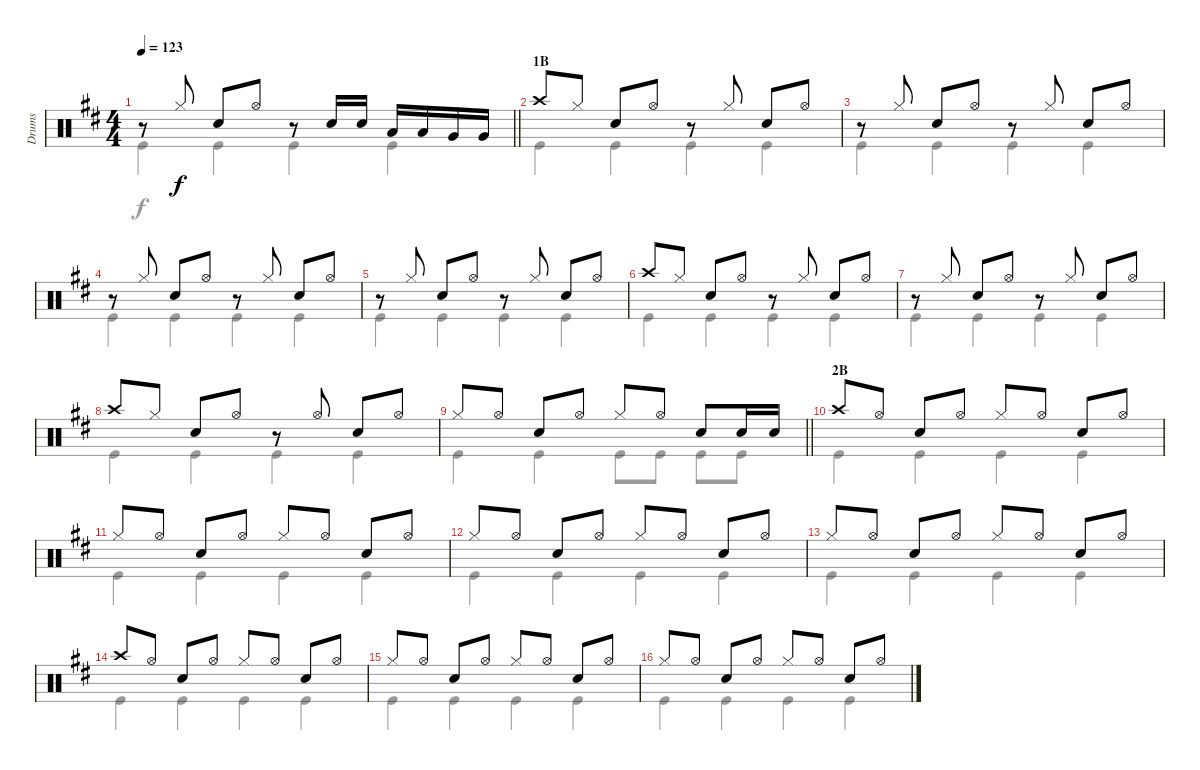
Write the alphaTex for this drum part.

\track ("Drums" "Drums") {instrument percussion}
\staff {score}
\articulation defaults
\voice
\ts (4 4)
\tempo 123
\clef neutral
\barLineRight lightlight
\ks d
r.8{dy f} "Hi-Hat (closed)".8 "Snare (hit) 2".8 "Hi-Hat (open)".8 r.8 "Snare (hit) 2".16 "Snare (hit) 2".16 "Low Tom (hit)".16 "Low Tom (hit)".16 "Very Low Tom (hit)".16 "Very Low Tom (hit)".16 |
\section ("" "1B")
"Crash high (hit)".8 "Hi-Hat (closed)".8 "Snare (hit) 2".8 "Hi-Hat (open)".8 r.8 "Hi-Hat (closed)".8 "Snare (hit) 2".8 "Hi-Hat (open)".8 |
r.8 "Hi-Hat (closed)".8 "Snare (hit) 2".8 "Hi-Hat (open)".8 r.8 "Hi-Hat (closed)".8 "Snare (hit) 2".8 "Hi-Hat (open)".8 |
r.8 "Hi-Hat (closed)".8 "Snare (hit) 2".8 "Hi-Hat (open)".8 r.8 "Hi-Hat (closed)".8 "Snare (hit) 2".8 "Hi-Hat (open)".8 |
r.8 "Hi-Hat (closed)".8 "Snare (hit) 2".8 "Hi-Hat (open)".8 r.8 "Hi-Hat (closed)".8 "Snare (hit) 2".8 "Hi-Hat (open)".8 |
"Crash high (hit)".8 "Hi-Hat (closed)".8 "Snare (hit) 2".8 "Hi-Hat (open)".8 r.8 "Hi-Hat (closed)".8 "Snare (hit) 2".8 "Hi-Hat (open)".8 |
r.8 "Hi-Hat (closed)".8 "Snare (hit) 2".8 "Hi-Hat (open)".8 r.8 "Hi-Hat (closed)".8 "Snare (hit) 2".8 "Hi-Hat (open)".8 |
"Crash high (hit)".8 "Hi-Hat (closed)".8 "Snare (hit) 2".8 "Hi-Hat (open)".8 r.8 "Hi-Hat (open)".8 "Snare (hit) 2".8 "Hi-Hat (open)".8 |
\barLineRight lightlight "Hi-Hat (closed)".8 "Hi-Hat (open)".8 "Snare (hit) 2".8 "Hi-Hat (open)".8 "Hi-Hat (closed)".8 "Hi-Hat (open)".8 "Snare (hit) 2".8 "Snare (hit) 2".16 "Snare (hit) 2".16
|
\section ("" "2B")
"Crash high (hit)".8 "Hi-Hat (open)".8 "Snare (hit) 2".8 "Hi-Hat (open)".8 "Hi-Hat (closed)".8 "Hi-Hat (open)".8 "Snare (hit) 2".8 "Hi-Hat (open)".8 |
"Hi-Hat (closed)".8 "Hi-Hat (open)".8 "Snare (hit) 2".8 "Hi-Hat (open)".8 "Hi-Hat (closed)".8 "Hi-Hat (open)".8 "Snare (hit) 2".8 "Hi-Hat (open)".8 |
"Hi-Hat (closed)".8 "Hi-Hat (open)".8 "Snare (hit) 2".8 "Hi-Hat (open)".8 "Hi-Hat (closed)".8 "Hi-Hat (open)".8 "Snare (hit) 2".8 "Hi-Hat (open)".8 |
"Hi-Hat (closed)".8 "Hi-Hat (open)".8 "Snare (hit) 2".8 "Hi-Hat (open)".8 "Hi-Hat (closed)".8 "Hi-Hat (open)".8 "Snare (hit) 2".8 "Hi-Hat (open)".8 |
"Crash high (hit)".8 "Hi-Hat (open)".8 "Snare (hit) 2".8 "Hi-Hat (open)".8 "Hi-Hat (closed)".8 "Hi-Hat (open)".8 "Snare (hit) 2".8 "Hi-Hat (open)".8 |
"Hi-Hat (closed)".8 "Hi-Hat (open)".8 "Snare (hit) 2".8 "Hi-Hat (open)".8 "Hi-Hat (closed)".8 "Hi-Hat (open)".8 "Snare (hit) 2".8 "Hi-Hat (open)".8 |
"Hi-Hat (closed)".8 "Hi-Hat (open)".8 "Snare (hit) 2".8 "Hi-Hat (open)".8 "Hi-Hat (closed)".8 "Hi-Hat (open)".8 "Snare (hit) 2".8 "Hi-Hat (open)".8
\voice
\clef neutral
\ottava regular
\simile none
\barLineRight lightlight
\ks d "Kick (hit)".4{dy f} "Kick (hit)".4 "Kick (hit)".4 "Kick (hit)".4
|
"Kick (hit)".4 "Kick (hit)".4 "Kick (hit)".4 "Kick (hit)".4 |
"Kick (hit)".4 "Kick (hit)".4 "Kick (hit)".4 "Kick (hit)".4 |
"Kick (hit)".4 "Kick (hit)".4 "Kick (hit)".4 "Kick (hit)".4 |
"Kick (hit)".4 "Kick (hit)".4 "Kick (hit)".4 "Kick (hit)".4 |
"Kick (hit)".4 "Kick (hit)".4 "Kick (hit)".4 "Kick (hit)".4 |
"Kick (hit)".4 "Kick (hit)".4 "Kick (hit)".4 "Kick (hit)".4 |
"Kick (hit)".4 "Kick (hit)".4 "Kick (hit)".4 "Kick (hit)".4 |
\barLineRight lightlight "Kick (hit)".4 "Kick (hit)".4 "Kick (hit)".8 "Kick (hit)".8 "Kick (hit)".8 "Kick (hit)".8
|
"Kick (hit)".4 "Kick (hit)".4 "Kick (hit)".4 "Kick (hit)".4 |
"Kick (hit)".4 "Kick (hit)".4 "Kick (hit)".4 "Kick (hit)".4 |
"Kick (hit)".4 "Kick (hit)".4 "Kick (hit)".4 "Kick (hit)".4 |
"Kick (hit)".4 "Kick (hit)".4 "Kick (hit)".4 "Kick (hit)".4 |
"Kick (hit)".4 "Kick (hit)".4 "Kick (hit)".4 "Kick (hit)".4 |
"Kick (hit)".4 "Kick (hit)".4 "Kick (hit)".4 "Kick (hit)".4 |
"Kick (hit)".4 "Kick (hit)".4 "Kick (hit)".4 "Kick (hit)".4
